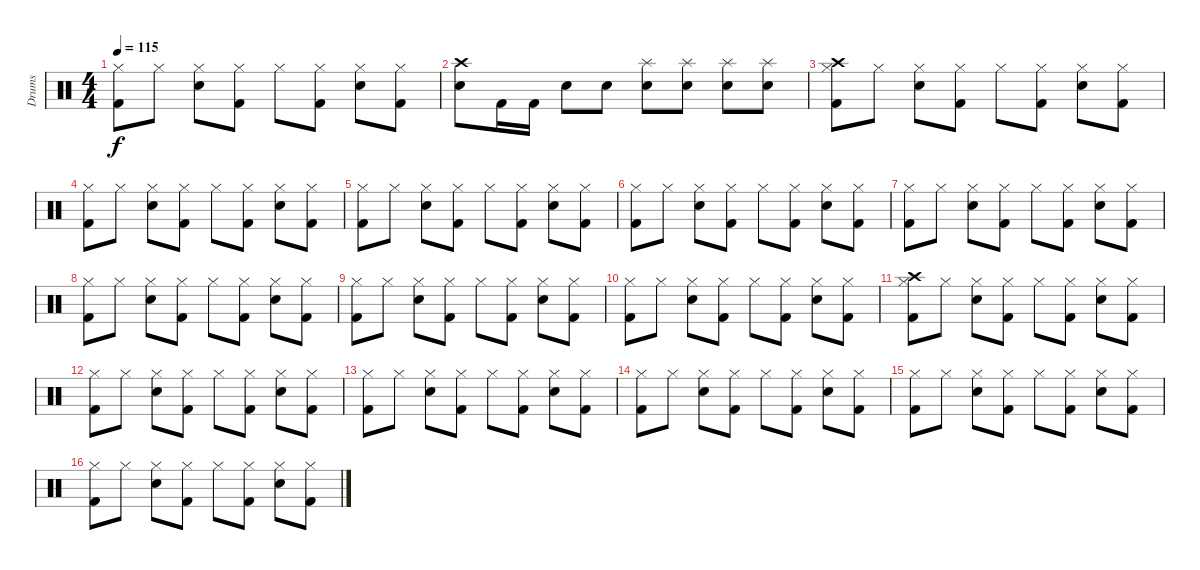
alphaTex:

\track ("Drums" "Drums") {instrument percussion}
\staff {score}
\articulation defaults
\ts (4 4)
\tempo 115
\clef neutral
\ks c
("Hi-Hat (closed)" "Kick (hit) 2").8{dy f} "Hi-Hat (closed)".8 ("Hi-Hat (closed)" "Snare (hit) 2").8 ("Hi-Hat (closed)" "Kick (hit) 2").8 "Hi-Hat (closed)".8 ("Hi-Hat (closed)" "Kick (hit) 2").8 ("Hi-Hat (closed)" "Snare (hit) 2").8 ("Hi-Hat (closed)" "Kick (hit) 2").8 |
("Crash high (hit)" "Snare (hit) 2").8 "Kick (hit) 2".16 "Kick (hit) 2".16 "Snare (hit) 2".8 "Snare (hit) 2".8 ("Splash (hit)" "Snare (hit) 2").8 ("Splash (hit)" "Snare (hit) 2").8 ("Splash (hit)" "Snare (hit) 2").8 ("Splash (hit)" "Snare (hit) 2").8 |
("Crash high (hit)" "Hi-Hat (closed)" "Kick (hit) 2").8 "Hi-Hat (closed)".8 ("Hi-Hat (closed)" "Snare (hit) 2").8 ("Hi-Hat (closed)" "Kick (hit) 2").8 "Hi-Hat (closed)".8 ("Hi-Hat (closed)" "Kick (hit) 2").8 ("Hi-Hat (closed)" "Snare (hit) 2").8 ("Hi-Hat (closed)" "Kick (hit) 2").8 |
("Hi-Hat (closed)" "Kick (hit) 2").8 "Hi-Hat (closed)".8 ("Hi-Hat (closed)" "Snare (hit) 2").8 ("Hi-Hat (closed)" "Kick (hit) 2").8 "Hi-Hat (closed)".8 ("Hi-Hat (closed)" "Kick (hit) 2").8 ("Hi-Hat (closed)" "Snare (hit) 2").8 ("Hi-Hat (closed)" "Kick (hit) 2").8 |
("Hi-Hat (closed)" "Kick (hit) 2").8 "Hi-Hat (closed)".8 ("Hi-Hat (closed)" "Snare (hit) 2").8 ("Hi-Hat (closed)" "Kick (hit) 2").8 "Hi-Hat (closed)".8 ("Hi-Hat (closed)" "Kick (hit) 2").8 ("Hi-Hat (closed)" "Snare (hit) 2").8 ("Hi-Hat (closed)" "Kick (hit) 2").8 |
("Hi-Hat (closed)" "Kick (hit) 2").8 "Hi-Hat (closed)".8 ("Hi-Hat (closed)" "Snare (hit) 2").8 ("Hi-Hat (closed)" "Kick (hit) 2").8 "Hi-Hat (closed)".8 ("Hi-Hat (closed)" "Kick (hit) 2").8 ("Hi-Hat (closed)" "Snare (hit) 2").8 ("Hi-Hat (closed)" "Kick (hit) 2").8 |
("Hi-Hat (closed)" "Kick (hit) 2").8 "Hi-Hat (closed)".8 ("Hi-Hat (closed)" "Snare (hit) 2").8 ("Hi-Hat (closed)" "Kick (hit) 2").8 "Hi-Hat (closed)".8 ("Hi-Hat (closed)" "Kick (hit) 2").8 ("Hi-Hat (closed)" "Snare (hit) 2").8 ("Hi-Hat (closed)" "Kick (hit) 2").8 |
("Hi-Hat (closed)" "Kick (hit) 2").8 "Hi-Hat (closed)".8 ("Hi-Hat (closed)" "Snare (hit) 2").8 ("Hi-Hat (closed)" "Kick (hit) 2").8 "Hi-Hat (closed)".8 ("Hi-Hat (closed)" "Kick (hit) 2").8 ("Hi-Hat (closed)" "Snare (hit) 2").8 ("Hi-Hat (closed)" "Kick (hit) 2").8 |
("Hi-Hat (closed)" "Kick (hit) 2").8 "Hi-Hat (closed)".8 ("Hi-Hat (closed)" "Snare (hit) 2").8 ("Hi-Hat (closed)" "Kick (hit) 2").8 "Hi-Hat (closed)".8 ("Hi-Hat (closed)" "Kick (hit) 2").8 ("Hi-Hat (closed)" "Snare (hit) 2").8 ("Hi-Hat (closed)" "Kick (hit) 2").8 |
("Hi-Hat (closed)" "Kick (hit) 2").8 "Hi-Hat (closed)".8 ("Hi-Hat (closed)" "Snare (hit) 2").8 ("Hi-Hat (closed)" "Kick (hit) 2").8 "Hi-Hat (closed)".8 ("Hi-Hat (closed)" "Kick (hit) 2").8 ("Hi-Hat (closed)" "Snare (hit) 2").8 ("Hi-Hat (closed)" "Kick (hit) 2").8 |
("Crash high (hit)" "Hi-Hat (closed)" "Kick (hit) 2").8 "Hi-Hat (closed)".8 ("Hi-Hat (closed)" "Snare (hit) 2").8 ("Hi-Hat (closed)" "Kick (hit) 2").8 "Hi-Hat (closed)".8 ("Hi-Hat (closed)" "Kick (hit) 2").8 ("Hi-Hat (closed)" "Snare (hit) 2").8 ("Hi-Hat (closed)" "Kick (hit) 2").8 |
("Hi-Hat (closed)" "Kick (hit) 2").8 "Hi-Hat (closed)".8 ("Hi-Hat (closed)" "Snare (hit) 2").8 ("Hi-Hat (closed)" "Kick (hit) 2").8 "Hi-Hat (closed)".8 ("Hi-Hat (closed)" "Kick (hit) 2").8 ("Hi-Hat (closed)" "Snare (hit) 2").8 ("Hi-Hat (closed)" "Kick (hit) 2").8 |
("Hi-Hat (closed)" "Kick (hit) 2").8 "Hi-Hat (closed)".8 ("Hi-Hat (closed)" "Snare (hit) 2").8 ("Hi-Hat (closed)" "Kick (hit) 2").8 "Hi-Hat (closed)".8 ("Hi-Hat (closed)" "Kick (hit) 2").8 ("Hi-Hat (closed)" "Snare (hit) 2").8 ("Hi-Hat (closed)" "Kick (hit) 2").8 |
("Hi-Hat (closed)" "Kick (hit) 2").8 "Hi-Hat (closed)".8 ("Hi-Hat (closed)" "Snare (hit) 2").8 ("Hi-Hat (closed)" "Kick (hit) 2").8 "Hi-Hat (closed)".8 ("Hi-Hat (closed)" "Kick (hit) 2").8 ("Hi-Hat (closed)" "Snare (hit) 2").8 ("Hi-Hat (closed)" "Kick (hit) 2").8 |
("Hi-Hat (closed)" "Kick (hit) 2").8 "Hi-Hat (closed)".8 ("Hi-Hat (closed)" "Snare (hit) 2").8 ("Hi-Hat (closed)" "Kick (hit) 2").8 "Hi-Hat (closed)".8 ("Hi-Hat (closed)" "Kick (hit) 2").8 ("Hi-Hat (closed)" "Snare (hit) 2").8 ("Hi-Hat (closed)" "Kick (hit) 2").8 |
("Hi-Hat (closed)" "Kick (hit) 2").8 "Hi-Hat (closed)".8 ("Hi-Hat (closed)" "Snare (hit) 2").8 ("Hi-Hat (closed)" "Kick (hit) 2").8 "Hi-Hat (closed)".8 ("Hi-Hat (closed)" "Kick (hit) 2").8 ("Hi-Hat (closed)" "Snare (hit) 2").8 ("Hi-Hat (closed)" "Kick (hit) 2").8
